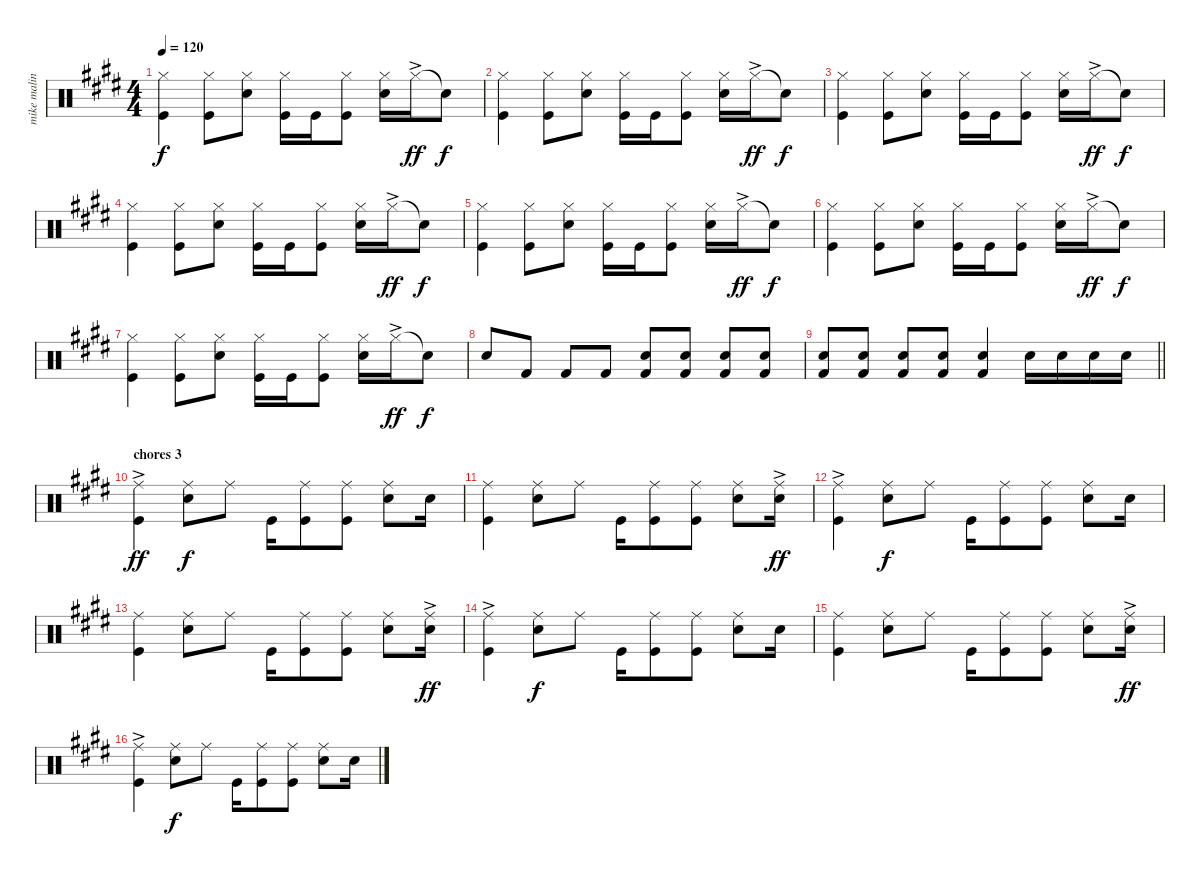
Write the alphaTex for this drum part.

\track ("mike malinin(drums)" "mike malin") {instrument percussion}
\staff {score}
\articulation defaults
\ts (4 4)
\tempo 120
\clef neutral
\ks e
("Hi-Hat (closed)" "Kick (hit)").4{dy f} ("Hi-Hat (closed)" "Kick (hit)").8 ("Hi-Hat (closed)" "Snare (hit) 2").8 ("Hi-Hat (closed)" "Kick (hit)").16 "Kick (hit)".16 ("Hi-Hat (closed)" "Kick (hit)").8 ("Hi-Hat (closed)" "Snare (hit) 2").16 "Hi-Hat (closed)"{ac}.16{dy ff} "Snare (hit)"{t}.8{dy f} |
("Hi-Hat (closed)" "Kick (hit)").4 ("Hi-Hat (closed)" "Kick (hit)").8 ("Hi-Hat (closed)" "Snare (hit) 2").8 ("Hi-Hat (closed)" "Kick (hit)").16 "Kick (hit)".16 ("Hi-Hat (closed)" "Kick (hit)").8 ("Hi-Hat (closed)" "Snare (hit) 2").16 "Hi-Hat (closed)"{ac}.16{dy ff} "Snare (hit)"{t}.8{dy f} |
("Hi-Hat (closed)" "Kick (hit)").4 ("Hi-Hat (closed)" "Kick (hit)").8 ("Hi-Hat (closed)" "Snare (hit) 2").8 ("Hi-Hat (closed)" "Kick (hit)").16 "Kick (hit)".16 ("Hi-Hat (closed)" "Kick (hit)").8 ("Hi-Hat (closed)" "Snare (hit) 2").16 "Hi-Hat (closed)"{ac}.16{dy ff} "Snare (hit)"{t}.8{dy f} |
("Hi-Hat (closed)" "Kick (hit)").4 ("Hi-Hat (closed)" "Kick (hit)").8 ("Hi-Hat (closed)" "Snare (hit) 2").8 ("Hi-Hat (closed)" "Kick (hit)").16 "Kick (hit)".16 ("Hi-Hat (closed)" "Kick (hit)").8 ("Hi-Hat (closed)" "Snare (hit) 2").16 "Hi-Hat (closed)"{ac}.16{dy ff} "Snare (hit)"{t}.8{dy f} |
("Hi-Hat (closed)" "Kick (hit)").4 ("Hi-Hat (closed)" "Kick (hit)").8 ("Hi-Hat (closed)" "Snare (hit) 2").8 ("Hi-Hat (closed)" "Kick (hit)").16 "Kick (hit)".16 ("Hi-Hat (closed)" "Kick (hit)").8 ("Hi-Hat (closed)" "Snare (hit) 2").16 "Hi-Hat (closed)"{ac}.16{dy ff} "Snare (hit)"{t}.8{dy f} |
("Hi-Hat (closed)" "Kick (hit)").4 ("Hi-Hat (closed)" "Kick (hit)").8 ("Hi-Hat (closed)" "Snare (hit) 2").8 ("Hi-Hat (closed)" "Kick (hit)").16 "Kick (hit)".16 ("Hi-Hat (closed)" "Kick (hit)").8 ("Hi-Hat (closed)" "Snare (hit) 2").16 "Hi-Hat (closed)"{ac}.16{dy ff} "Snare (hit)"{t}.8{dy f} |
("Hi-Hat (closed)" "Kick (hit)").4 ("Hi-Hat (closed)" "Kick (hit)").8 ("Hi-Hat (closed)" "Snare (hit) 2").8 ("Hi-Hat (closed)" "Kick (hit)").16 "Kick (hit)".16 ("Hi-Hat (closed)" "Kick (hit)").8 ("Hi-Hat (closed)" "Snare (hit) 2").16 "Hi-Hat (closed)"{ac}.16{dy ff} "Snare (hit)"{t}.8{dy f} |
"Snare (hit) 2".8 "Kick (hit) 2".8 "Kick (hit) 2".8 "Kick (hit) 2".8 ("Snare (hit) 2" "Kick (hit) 2").8 ("Snare (hit) 2" "Kick (hit) 2").8 ("Snare (hit) 2" "Kick (hit) 2").8 ("Snare (hit) 2" "Kick (hit) 2").8 |
\barLineRight lightlight
("Snare (hit) 2" "Kick (hit) 2").8 ("Snare (hit) 2" "Kick (hit) 2").8 ("Snare (hit) 2" "Kick (hit) 2").8 ("Snare (hit) 2" "Kick (hit) 2").8 ("Snare (hit) 2" "Kick (hit) 2").4 "Snare (hit) 2".16 "Snare (hit) 2".16 "Snare (hit) 2".16 "Snare (hit) 2".16 |
\section ("" "chores 3")
("Kick (hit)"{ac} "Ride (middle)").4{dy ff volume 10} ("Ride (middle)" "Snare (hit) 2").8{dy f} "Ride (middle)".8 "Kick (hit)".16 ("Ride (middle)" "Kick (hit)").8 ("Ride (middle)" "Kick (hit)").8 ("Ride (middle)" "Snare (hit) 2").8 "Snare (hit) 2".16 |
("Kick (hit)" "Ride (middle)").4 ("Ride (middle)" "Snare (hit) 2").8 "Ride (middle)".8 "Kick (hit)".16 ("Ride (middle)" "Kick (hit)").8 ("Ride (middle)" "Kick (hit)").8 ("Ride (middle)" "Snare (hit) 2").8 ("Ride (middle)"{ac} "Snare (hit) 2").16{dy ff} |
("Kick (hit)"{ac} "Ride (middle)").4 ("Ride (middle)" "Snare (hit) 2").8{dy f} "Ride (middle)".8 "Kick (hit)".16 ("Ride (middle)" "Kick (hit)").8 ("Ride (middle)" "Kick (hit)").8 ("Ride (middle)" "Snare (hit) 2").8 "Snare (hit) 2".16 |
("Kick (hit)" "Ride (middle)").4 ("Ride (middle)" "Snare (hit) 2").8 "Ride (middle)".8 "Kick (hit)".16 ("Ride (middle)" "Kick (hit)").8 ("Ride (middle)" "Kick (hit)").8 ("Ride (middle)" "Snare (hit) 2").8 ("Ride (middle)"{ac} "Snare (hit) 2").16{dy ff} |
("Kick (hit)"{ac} "Ride (middle)").4 ("Ride (middle)" "Snare (hit) 2").8{dy f} "Ride (middle)".8 "Kick (hit)".16 ("Ride (middle)" "Kick (hit)").8 ("Ride (middle)" "Kick (hit)").8 ("Ride (middle)" "Snare (hit) 2").8 "Snare (hit) 2".16 |
("Kick (hit)" "Ride (middle)").4 ("Ride (middle)" "Snare (hit) 2").8 "Ride (middle)".8 "Kick (hit)".16 ("Ride (middle)" "Kick (hit)").8 ("Ride (middle)" "Kick (hit)").8 ("Ride (middle)" "Snare (hit) 2").8 ("Ride (middle)"{ac} "Snare (hit) 2").16{dy ff} |
("Kick (hit)"{ac} "Ride (middle)").4 ("Ride (middle)" "Snare (hit) 2").8{dy f} "Ride (middle)".8 "Kick (hit)".16 ("Ride (middle)" "Kick (hit)").8 ("Ride (middle)" "Kick (hit)").8 ("Ride (middle)" "Snare (hit) 2").8 "Snare (hit) 2".16
